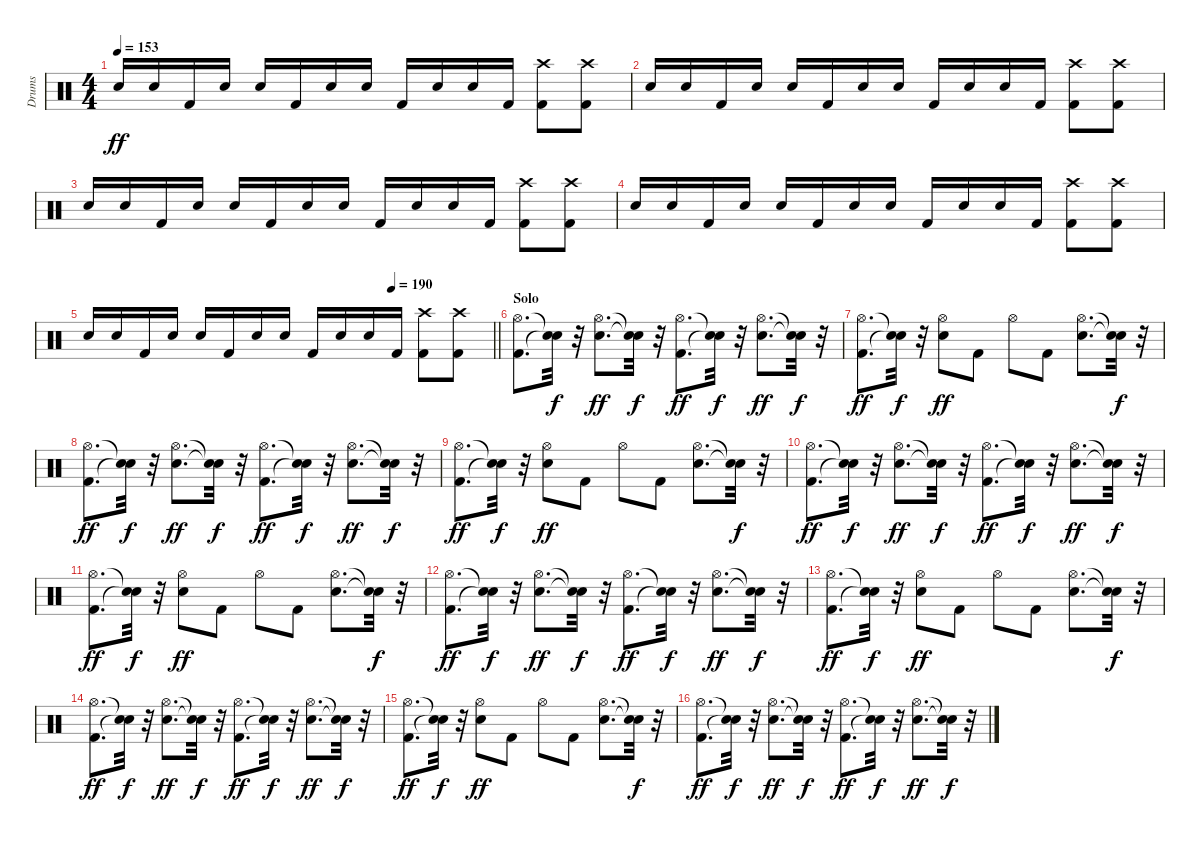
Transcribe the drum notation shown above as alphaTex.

\track ("Drums" "Drums") {instrument percussion}
\staff {score}
\articulation defaults
\ts (4 4)
\tempo 153
\clef neutral
\ks c "Snare (hit) 2".16{dy ff} "Snare (hit) 2".16 "Kick (hit) 2".16 "Snare (hit) 2".16 "Snare (hit) 2".16 "Kick (hit) 2".16 "Snare (hit) 2".16 "Snare (hit) 2".16 "Kick (hit) 2".16 "Snare (hit) 2".16 "Snare (hit) 2".16 "Kick (hit) 2".16
("Kick (hit) 2" "Crash high (hit)").8 ("Kick (hit) 2" "Crash high (hit)").8 |
"Snare (hit) 2".16 "Snare (hit) 2".16 "Kick (hit) 2".16 "Snare (hit) 2".16 "Snare (hit) 2".16 "Kick (hit) 2".16 "Snare (hit) 2".16 "Snare (hit) 2".16 "Kick (hit) 2".16 "Snare (hit) 2".16 "Snare (hit) 2".16 "Kick (hit) 2".16 ("Kick (hit) 2" "Crash high (hit)").8 ("Kick (hit) 2" "Crash high (hit)").8 |
"Snare (hit) 2".16 "Snare (hit) 2".16 "Kick (hit) 2".16 "Snare (hit) 2".16 "Snare (hit) 2".16 "Kick (hit) 2".16 "Snare (hit) 2".16 "Snare (hit) 2".16 "Kick (hit) 2".16 "Snare (hit) 2".16 "Snare (hit) 2".16 "Kick (hit) 2".16 ("Kick (hit) 2" "Crash high (hit)").8 ("Kick (hit) 2" "Crash high (hit)").8 |
"Snare (hit) 2".16 "Snare (hit) 2".16 "Kick (hit) 2".16 "Snare (hit) 2".16 "Snare (hit) 2".16 "Kick (hit) 2".16 "Snare (hit) 2".16 "Snare (hit) 2".16 "Kick (hit) 2".16 "Snare (hit) 2".16 "Snare (hit) 2".16 "Kick (hit) 2".16 ("Kick (hit) 2" "Crash high (hit)").8 ("Kick (hit) 2" "Crash high (hit)").8 |
\tempo (190 0.75)
\barLineRight lightlight "Snare (hit) 2".16 "Snare (hit) 2".16 "Kick (hit) 2".16 "Snare (hit) 2".16 "Snare (hit) 2".16 "Kick (hit) 2".16 "Snare (hit) 2".16 "Snare (hit) 2".16 "Kick (hit) 2".16 "Snare (hit) 2".16 "Snare (hit) 2".16 "Kick (hit) 2".16
("Kick (hit) 2" "Crash high (hit)").8 ("Kick (hit) 2" "Crash high (hit)").8 |
\section ("" "Solo ")
("Kick (hit) 2" "Hi-Hat (open)").8{d} ("Snare (hit)"{t} "Snare (hit)"{t}).32{dy f} r.32 ("Snare (hit) 2" "Hi-Hat (open)").8{d dy ff} ("Snare (hit)"{t} "Snare (hit)"{t}).32{dy f} r.32 ("Kick (hit) 2" "Hi-Hat (open)").8{d dy ff} ("Snare (hit)"{t} "Snare (hit)"{t}).32{dy f} r.32 ("Snare (hit) 2" "Hi-Hat (open)").8{d dy ff} ("Snare (hit)"{t} "Snare (hit)"{t}).32{dy f} r.32 |
("Kick (hit) 2" "Hi-Hat (open)").8{d dy ff} ("Snare (hit)"{t} "Snare (hit)"{t}).32{dy f} r.32 ("Snare (hit) 2" "Hi-Hat (open)").8{dy ff} "Kick (hit) 2".8 "Hi-Hat (open)".8 "Kick (hit) 2".8 ("Snare (hit) 2" "Hi-Hat (open)").8{d} ("Snare (hit)"{t} "Snare (hit)"{t}).32{dy f} r.32 |
("Kick (hit) 2" "Hi-Hat (open)").8{d dy ff} ("Snare (hit)"{t} "Snare (hit)"{t}).32{dy f} r.32 ("Snare (hit) 2" "Hi-Hat (open)").8{d dy ff} ("Snare (hit)"{t} "Snare (hit)"{t}).32{dy f} r.32 ("Kick (hit) 2" "Hi-Hat (open)").8{d dy ff} ("Snare (hit)"{t} "Snare (hit)"{t}).32{dy f} r.32 ("Snare (hit) 2" "Hi-Hat (open)").8{d dy ff} ("Snare (hit)"{t} "Snare (hit)"{t}).32{dy f} r.32 |
("Kick (hit) 2" "Hi-Hat (open)").8{d dy ff} ("Snare (hit)"{t} "Snare (hit)"{t}).32{dy f} r.32 ("Snare (hit) 2" "Hi-Hat (open)").8{dy ff} "Kick (hit) 2".8 "Hi-Hat (open)".8 "Kick (hit) 2".8 ("Snare (hit) 2" "Hi-Hat (open)").8{d} ("Snare (hit)"{t} "Snare (hit)"{t}).32{dy f} r.32 |
("Kick (hit) 2" "Hi-Hat (open)").8{d dy ff} ("Snare (hit)"{t} "Snare (hit)"{t}).32{dy f} r.32 ("Snare (hit) 2" "Hi-Hat (open)").8{d dy ff} ("Snare (hit)"{t} "Snare (hit)"{t}).32{dy f} r.32 ("Kick (hit) 2" "Hi-Hat (open)").8{d dy ff} ("Snare (hit)"{t} "Snare (hit)"{t}).32{dy f} r.32 ("Snare (hit) 2" "Hi-Hat (open)").8{d dy ff} ("Snare (hit)"{t} "Snare (hit)"{t}).32{dy f} r.32 |
("Kick (hit) 2" "Hi-Hat (open)").8{d dy ff} ("Snare (hit)"{t} "Snare (hit)"{t}).32{dy f} r.32 ("Snare (hit) 2" "Hi-Hat (open)").8{dy ff} "Kick (hit) 2".8 "Hi-Hat (open)".8 "Kick (hit) 2".8 ("Snare (hit) 2" "Hi-Hat (open)").8{d} ("Snare (hit)"{t} "Snare (hit)"{t}).32{dy f} r.32 |
("Kick (hit) 2" "Hi-Hat (open)").8{d dy ff} ("Snare (hit)"{t} "Snare (hit)"{t}).32{dy f} r.32 ("Snare (hit) 2" "Hi-Hat (open)").8{d dy ff} ("Snare (hit)"{t} "Snare (hit)"{t}).32{dy f} r.32 ("Kick (hit) 2" "Hi-Hat (open)").8{d dy ff} ("Snare (hit)"{t} "Snare (hit)"{t}).32{dy f} r.32 ("Snare (hit) 2" "Hi-Hat (open)").8{d dy ff} ("Snare (hit)"{t} "Snare (hit)"{t}).32{dy f} r.32 |
("Kick (hit) 2" "Hi-Hat (open)").8{d dy ff} ("Snare (hit)"{t} "Snare (hit)"{t}).32{dy f} r.32 ("Snare (hit) 2" "Hi-Hat (open)").8{dy ff} "Kick (hit) 2".8 "Hi-Hat (open)".8 "Kick (hit) 2".8 ("Snare (hit) 2" "Hi-Hat (open)").8{d} ("Snare (hit)"{t} "Snare (hit)"{t}).32{dy f} r.32 |
("Kick (hit) 2" "Hi-Hat (open)").8{d dy ff} ("Snare (hit)"{t} "Snare (hit)"{t}).32{dy f} r.32 ("Snare (hit) 2" "Hi-Hat (open)").8{d dy ff} ("Snare (hit)"{t} "Snare (hit)"{t}).32{dy f} r.32 ("Kick (hit) 2" "Hi-Hat (open)").8{d dy ff} ("Snare (hit)"{t} "Snare (hit)"{t}).32{dy f} r.32 ("Snare (hit) 2" "Hi-Hat (open)").8{d dy ff} ("Snare (hit)"{t} "Snare (hit)"{t}).32{dy f} r.32 |
("Kick (hit) 2" "Hi-Hat (open)").8{d dy ff} ("Snare (hit)"{t} "Snare (hit)"{t}).32{dy f} r.32 ("Snare (hit) 2" "Hi-Hat (open)").8{dy ff} "Kick (hit) 2".8 "Hi-Hat (open)".8 "Kick (hit) 2".8 ("Snare (hit) 2" "Hi-Hat (open)").8{d} ("Snare (hit)"{t} "Snare (hit)"{t}).32{dy f} r.32 |
("Kick (hit) 2" "Hi-Hat (open)").8{d dy ff} ("Snare (hit)"{t} "Snare (hit)"{t}).32{dy f} r.32 ("Snare (hit) 2" "Hi-Hat (open)").8{d dy ff} ("Snare (hit)"{t} "Snare (hit)"{t}).32{dy f} r.32 ("Kick (hit) 2" "Hi-Hat (open)").8{d dy ff} ("Snare (hit)"{t} "Snare (hit)"{t}).32{dy f} r.32 ("Snare (hit) 2" "Hi-Hat (open)").8{d dy ff} ("Snare (hit)"{t} "Snare (hit)"{t}).32{dy f} r.32
